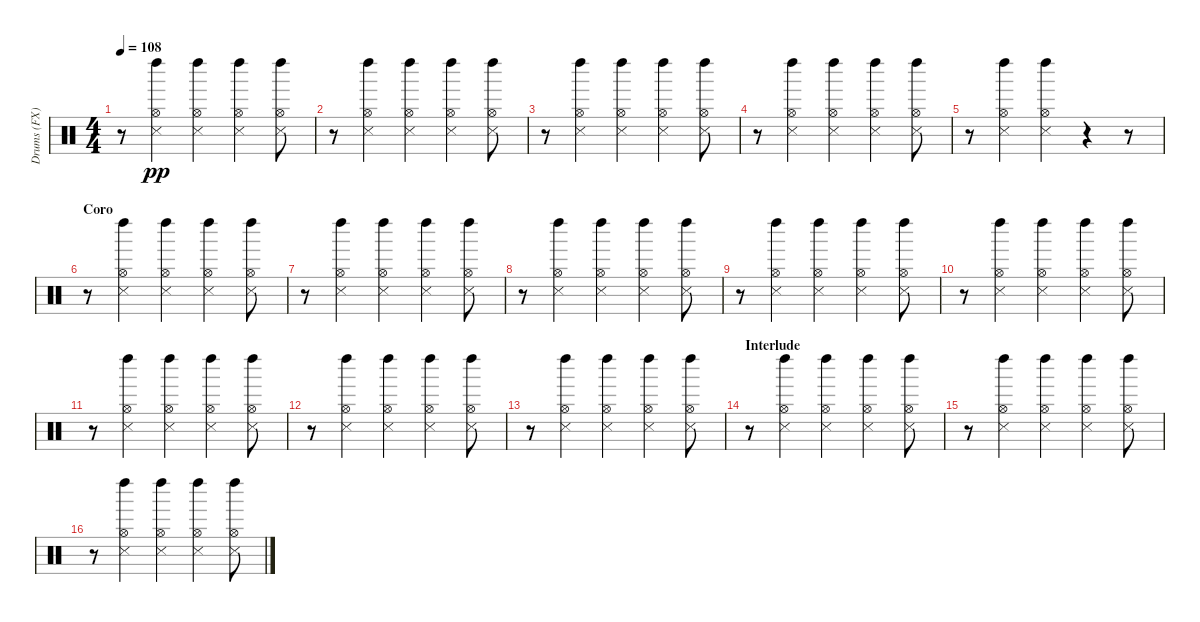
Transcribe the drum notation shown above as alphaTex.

\track ("Drums (FX)" "Drums (FX)") {instrument percussion}
\staff {score}
\articulation defaults
\ts (4 4)
\tempo 108
\clef neutral
\ks c
r.8{dy pp} ("Hi-Hat (open)" "Snare (side stick) 3" "Left Maraca (hit)").4 ("Hi-Hat (open)" "Snare (side stick) 3" "Left Maraca (hit)").4 ("Hi-Hat (open)" "Snare (side stick) 3" "Left Maraca (hit)").4 ("Hi-Hat (open)" "Snare (side stick) 3" "Left Maraca (hit)").8 |
r.8 ("Hi-Hat (open)" "Snare (side stick) 3" "Left Maraca (hit)").4 ("Hi-Hat (open)" "Snare (side stick) 3" "Left Maraca (hit)").4 ("Hi-Hat (open)" "Snare (side stick) 3" "Left Maraca (hit)").4 ("Hi-Hat (open)" "Snare (side stick) 3" "Left Maraca (hit)").8 |
r.8 ("Hi-Hat (open)" "Snare (side stick) 3" "Left Maraca (hit)").4 ("Hi-Hat (open)" "Snare (side stick) 3" "Left Maraca (hit)").4 ("Hi-Hat (open)" "Snare (side stick) 3" "Left Maraca (hit)").4 ("Hi-Hat (open)" "Snare (side stick) 3" "Left Maraca (hit)").8 |
r.8 ("Hi-Hat (open)" "Snare (side stick) 3" "Left Maraca (hit)").4 ("Hi-Hat (open)" "Snare (side stick) 3" "Left Maraca (hit)").4 ("Hi-Hat (open)" "Snare (side stick) 3" "Left Maraca (hit)").4 ("Hi-Hat (open)" "Snare (side stick) 3" "Left Maraca (hit)").8 |
r.8 ("Hi-Hat (open)" "Snare (side stick) 3" "Left Maraca (hit)").4 ("Hi-Hat (open)" "Snare (side stick) 3" "Left Maraca (hit)").4 r.4 r.8 |
\section ("" "Coro")
r.8 ("Hi-Hat (open)" "Snare (side stick) 3" "Left Maraca (hit)").4 ("Hi-Hat (open)" "Snare (side stick) 3" "Left Maraca (hit)").4 ("Hi-Hat (open)" "Snare (side stick) 3" "Left Maraca (hit)").4 ("Hi-Hat (open)" "Snare (side stick) 3" "Left Maraca (hit)").8 |
r.8 ("Hi-Hat (open)" "Snare (side stick) 3" "Left Maraca (hit)").4 ("Hi-Hat (open)" "Snare (side stick) 3" "Left Maraca (hit)").4 ("Hi-Hat (open)" "Snare (side stick) 3" "Left Maraca (hit)").4 ("Hi-Hat (open)" "Snare (side stick) 3" "Left Maraca (hit)").8 |
r.8 ("Hi-Hat (open)" "Snare (side stick) 3" "Left Maraca (hit)").4 ("Hi-Hat (open)" "Snare (side stick) 3" "Left Maraca (hit)").4 ("Hi-Hat (open)" "Snare (side stick) 3" "Left Maraca (hit)").4 ("Hi-Hat (open)" "Snare (side stick) 3" "Left Maraca (hit)").8 |
r.8 ("Hi-Hat (open)" "Snare (side stick) 3" "Left Maraca (hit)").4 ("Hi-Hat (open)" "Snare (side stick) 3" "Left Maraca (hit)").4 ("Hi-Hat (open)" "Snare (side stick) 3" "Left Maraca (hit)").4 ("Hi-Hat (open)" "Snare (side stick) 3" "Left Maraca (hit)").8 |
r.8 ("Hi-Hat (open)" "Snare (side stick) 3" "Left Maraca (hit)").4 ("Hi-Hat (open)" "Snare (side stick) 3" "Left Maraca (hit)").4 ("Hi-Hat (open)" "Snare (side stick) 3" "Left Maraca (hit)").4 ("Hi-Hat (open)" "Snare (side stick) 3" "Left Maraca (hit)").8 |
r.8 ("Hi-Hat (open)" "Snare (side stick) 3" "Left Maraca (hit)").4 ("Hi-Hat (open)" "Snare (side stick) 3" "Left Maraca (hit)").4 ("Hi-Hat (open)" "Snare (side stick) 3" "Left Maraca (hit)").4 ("Hi-Hat (open)" "Snare (side stick) 3" "Left Maraca (hit)").8 |
r.8 ("Hi-Hat (open)" "Snare (side stick) 3" "Left Maraca (hit)").4 ("Hi-Hat (open)" "Snare (side stick) 3" "Left Maraca (hit)").4 ("Hi-Hat (open)" "Snare (side stick) 3" "Left Maraca (hit)").4 ("Hi-Hat (open)" "Snare (side stick) 3" "Left Maraca (hit)").8 |
r.8 ("Hi-Hat (open)" "Snare (side stick) 3" "Left Maraca (hit)").4 ("Hi-Hat (open)" "Snare (side stick) 3" "Left Maraca (hit)").4 ("Hi-Hat (open)" "Snare (side stick) 3" "Left Maraca (hit)").4 ("Hi-Hat (open)" "Snare (side stick) 3" "Left Maraca (hit)").8 |
\section ("" "Interlude")
r.8 ("Hi-Hat (open)" "Snare (side stick) 3" "Left Maraca (hit)").4 ("Hi-Hat (open)" "Snare (side stick) 3" "Left Maraca (hit)").4 ("Hi-Hat (open)" "Snare (side stick) 3" "Left Maraca (hit)").4 ("Hi-Hat (open)" "Snare (side stick) 3" "Left Maraca (hit)").8 |
r.8 ("Hi-Hat (open)" "Snare (side stick) 3" "Left Maraca (hit)").4 ("Hi-Hat (open)" "Snare (side stick) 3" "Left Maraca (hit)").4 ("Hi-Hat (open)" "Snare (side stick) 3" "Left Maraca (hit)").4 ("Hi-Hat (open)" "Snare (side stick) 3" "Left Maraca (hit)").8 |
r.8 ("Hi-Hat (open)" "Snare (side stick) 3" "Left Maraca (hit)").4 ("Hi-Hat (open)" "Snare (side stick) 3" "Left Maraca (hit)").4 ("Hi-Hat (open)" "Snare (side stick) 3" "Left Maraca (hit)").4 ("Hi-Hat (open)" "Snare (side stick) 3" "Left Maraca (hit)").8
